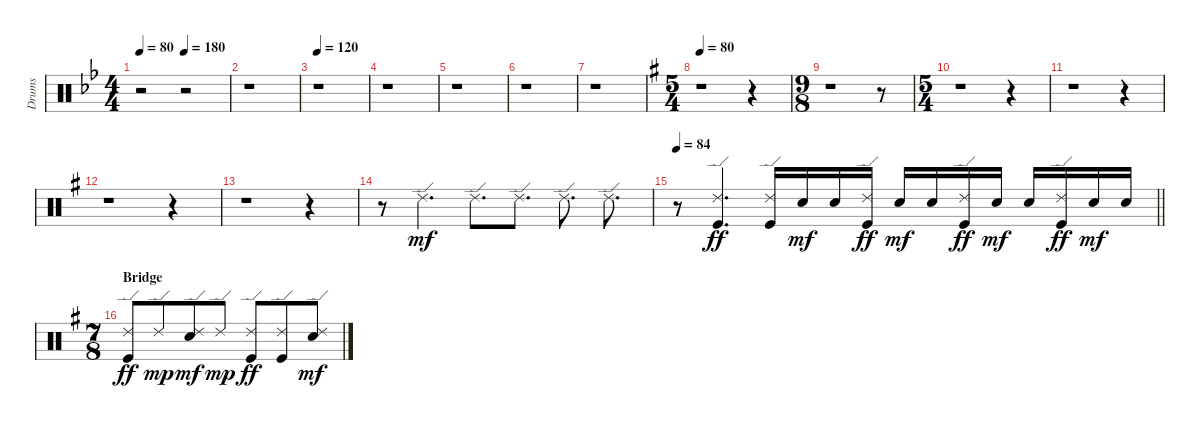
\track ("Drums" "Drums") {instrument percussion}
\staff {score}
\articulation defaults
\ts (4 4)
\tempo 80
\tempo (180 0.5)
\clef neutral
\ks gminor
r.2{dy ff} r.2 |
r.1 |
\tempo 120
r.1 |
r.1 |
r.1 |
\ks bb
r.1 |
r.1 |
\ts (5 4)
\tempo 80
\ks eminor
r.1 r.4 |
\ts (9 8)
r.1 r.8 |
\ts (5 4)
r.1 r.4 |
r.1 r.4 |
r.1 r.4 |
r.1 r.4 |
r.8 "Ride (edge) 2".4{d dy mf} "Ride (edge) 2".8{d} "Ride (edge) 2".8{d} "Ride (edge) 2".8{d} "Ride (edge) 2".8{d} |
\tempo 84
\barLineRight lightlight
r.8 ("Ride (edge) 2" "Kick (hit)").4{d dy ff} ("Ride (edge) 2" "Kick (hit)").16 "Electric Snare (hit)".16{dy mf} "Electric Snare (hit)".16 ("Ride (edge) 2" "Kick (hit)").16{dy ff} "Electric Snare (hit)".16{dy mf} "Electric Snare (hit)".16 ("Ride (edge) 2" "Kick (hit)").16{dy ff} "Electric Snare (hit)".16{dy mf} "Electric Snare (hit)".16 ("Ride (edge) 2" "Kick (hit)").16{dy ff} "Electric Snare (hit)".16{dy mf} "Electric Snare (hit)".16 |
\ts (7 8)
\section ("" "Bridge")
("Ride (edge) 2" "Kick (hit)").8{dy ff} "Ride (edge) 2".8{dy mp} ("Ride (edge) 2" "Electric Snare (hit)").8{dy mf} "Ride (edge) 2".8{dy mp} ("Ride (edge) 2" "Kick (hit)").8{dy ff} ("Ride (edge) 2" "Kick (hit)").8 ("Ride (edge) 2" "Electric Snare (hit)").8{dy mf}
